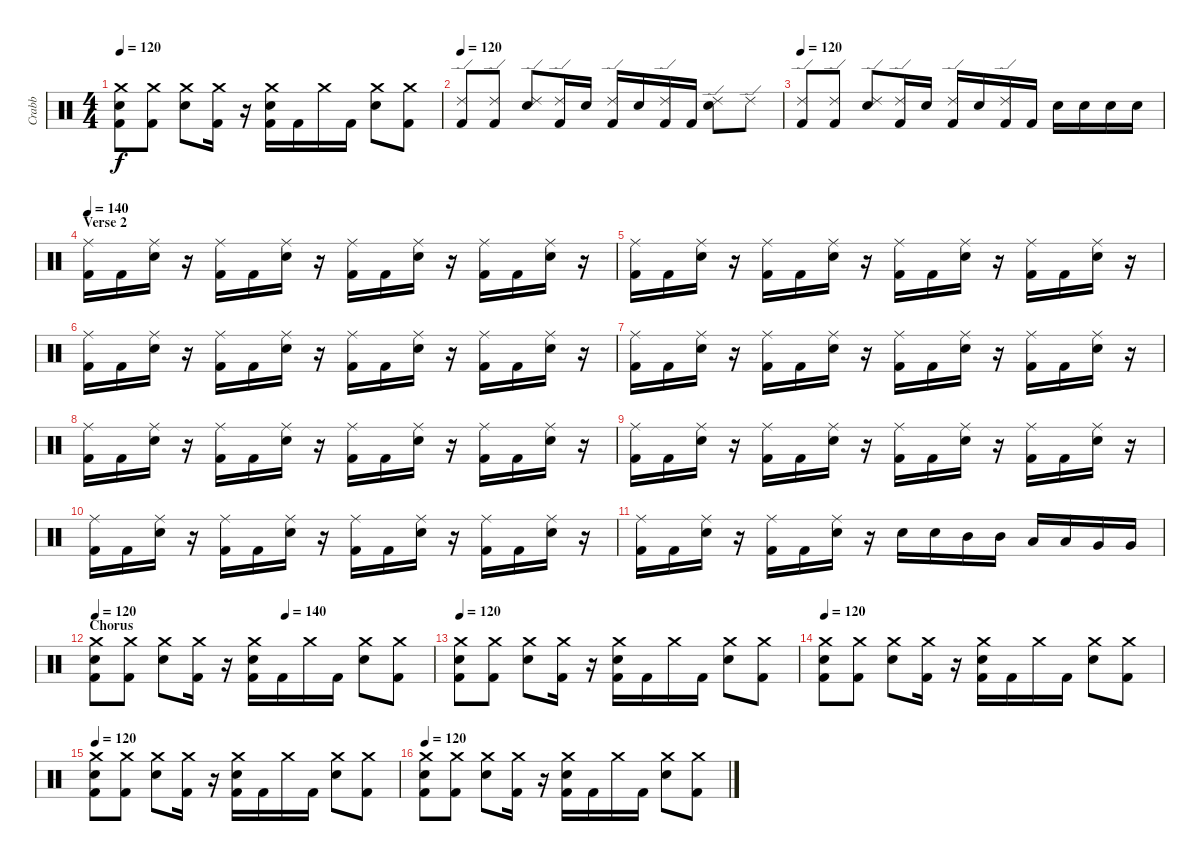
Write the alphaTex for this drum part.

\track ("Crabb" "Crabb") {instrument percussion}
\staff {score}
\articulation defaults
\ts (4 4)
\tempo 120
\clef neutral
\ks c
("Crash medium (hit)" "Kick (hit) 2" "Electric Snare (hit)").8{dy f} ("Crash medium (hit)" "Kick (hit) 2").8 ("Crash medium (hit)" "Electric Snare (hit)").8 ("Crash medium (hit)" "Kick (hit) 2").16 r.16 ("Crash medium (hit)" "Kick (hit) 2" "Electric Snare (hit)").16 "Kick (hit) 2".16 "Crash medium (hit)".16 "Kick (hit) 2".16 ("Crash medium (hit)" "Electric Snare (hit)").8 ("Crash medium (hit)" "Kick (hit) 2").8 |
\tempo 120
("Ride (edge) 2" "Kick (hit) 2").8 ("Ride (edge) 2" "Kick (hit) 2").8 ("Ride (edge) 2" "Electric Snare (hit)").8 ("Ride (edge) 2" "Kick (hit) 2").16 "Electric Snare (hit)".16 ("Ride (edge) 2" "Kick (hit) 2").16 "Electric Snare (hit)".16 ("Ride (edge) 2" "Kick (hit) 2").16 "Kick (hit) 2".16 ("Ride (edge) 2" "Electric Snare (hit)").8 "Ride (edge) 2".8 |
\tempo 120
("Ride (edge) 2" "Kick (hit) 2").8 ("Ride (edge) 2" "Kick (hit) 2").8 ("Ride (edge) 2" "Electric Snare (hit)").8 ("Ride (edge) 2" "Kick (hit) 2").16 "Electric Snare (hit)".16 ("Ride (edge) 2" "Kick (hit) 2").16 "Electric Snare (hit)".16 ("Ride (edge) 2" "Kick (hit) 2").16 "Kick (hit) 2".16 "Electric Snare (hit)".16 "Electric Snare (hit)".16 "Electric Snare (hit)".16 "Electric Snare (hit)".16 |
\section ("" "Verse 2")
\tempo 140
("Ride (middle)" "Kick (hit) 2").16 "Kick (hit) 2".16 ("Ride (middle)" "Electric Snare (hit)").16 r.16 ("Ride (middle)" "Kick (hit) 2").16 "Kick (hit) 2".16 ("Ride (middle)" "Electric Snare (hit)").16 r.16 ("Ride (middle)" "Kick (hit) 2").16 "Kick (hit) 2".16 ("Ride (middle)" "Electric Snare (hit)").16 r.16 ("Ride (middle)" "Kick (hit) 2").16 "Kick (hit) 2".16 ("Ride (middle)" "Electric Snare (hit)").16 r.16 |
("Ride (middle)" "Kick (hit) 2").16 "Kick (hit) 2".16 ("Ride (middle)" "Electric Snare (hit)").16 r.16 ("Ride (middle)" "Kick (hit) 2").16 "Kick (hit) 2".16 ("Ride (middle)" "Electric Snare (hit)").16 r.16 ("Ride (middle)" "Kick (hit) 2").16 "Kick (hit) 2".16 ("Ride (middle)" "Electric Snare (hit)").16 r.16 ("Ride (middle)" "Kick (hit) 2").16 "Kick (hit) 2".16 ("Ride (middle)" "Electric Snare (hit)").16 r.16 |
("Ride (middle)" "Kick (hit) 2").16 "Kick (hit) 2".16 ("Ride (middle)" "Electric Snare (hit)").16 r.16 ("Ride (middle)" "Kick (hit) 2").16 "Kick (hit) 2".16 ("Ride (middle)" "Electric Snare (hit)").16 r.16 ("Ride (middle)" "Kick (hit) 2").16 "Kick (hit) 2".16 ("Ride (middle)" "Electric Snare (hit)").16 r.16 ("Ride (middle)" "Kick (hit) 2").16 "Kick (hit) 2".16 ("Ride (middle)" "Electric Snare (hit)").16 r.16 |
("Ride (middle)" "Kick (hit) 2").16 "Kick (hit) 2".16 ("Ride (middle)" "Electric Snare (hit)").16 r.16 ("Ride (middle)" "Kick (hit) 2").16 "Kick (hit) 2".16 ("Ride (middle)" "Electric Snare (hit)").16 r.16 ("Ride (middle)" "Kick (hit) 2").16 "Kick (hit) 2".16 ("Ride (middle)" "Electric Snare (hit)").16 r.16 ("Ride (middle)" "Kick (hit) 2").16 "Kick (hit) 2".16 ("Ride (middle)" "Electric Snare (hit)").16 r.16 |
("Ride (middle)" "Kick (hit) 2").16 "Kick (hit) 2".16 ("Ride (middle)" "Electric Snare (hit)").16 r.16 ("Ride (middle)" "Kick (hit) 2").16 "Kick (hit) 2".16 ("Ride (middle)" "Electric Snare (hit)").16 r.16 ("Ride (middle)" "Kick (hit) 2").16 "Kick (hit) 2".16 ("Ride (middle)" "Electric Snare (hit)").16 r.16 ("Ride (middle)" "Kick (hit) 2").16 "Kick (hit) 2".16 ("Ride (middle)" "Electric Snare (hit)").16 r.16 |
("Ride (middle)" "Kick (hit) 2").16 "Kick (hit) 2".16 ("Ride (middle)" "Electric Snare (hit)").16 r.16 ("Ride (middle)" "Kick (hit) 2").16 "Kick (hit) 2".16 ("Ride (middle)" "Electric Snare (hit)").16 r.16 ("Ride (middle)" "Kick (hit) 2").16 "Kick (hit) 2".16 ("Ride (middle)" "Electric Snare (hit)").16 r.16 ("Ride (middle)" "Kick (hit) 2").16 "Kick (hit) 2".16 ("Ride (middle)" "Electric Snare (hit)").16 r.16 |
("Ride (middle)" "Kick (hit) 2").16 "Kick (hit) 2".16 ("Ride (middle)" "Electric Snare (hit)").16 r.16 ("Ride (middle)" "Kick (hit) 2").16 "Kick (hit) 2".16 ("Ride (middle)" "Electric Snare (hit)").16 r.16 ("Ride (middle)" "Kick (hit) 2").16 "Kick (hit) 2".16 ("Ride (middle)" "Electric Snare (hit)").16 r.16 ("Ride (middle)" "Kick (hit) 2").16 "Kick (hit) 2".16 ("Ride (middle)" "Electric Snare (hit)").16 r.16 |
("Ride (middle)" "Kick (hit) 2").16 "Kick (hit) 2".16 ("Ride (middle)" "Electric Snare (hit)").16 r.16 ("Ride (middle)" "Kick (hit) 2").16 "Kick (hit) 2".16 ("Ride (middle)" "Electric Snare (hit)").16 r.16 "Electric Snare (hit)".16 "Electric Snare (hit)".16 "Mid Tom (hit)".16 "Mid Tom (hit)".16 "Low Tom (hit)".16 "Low Tom (hit)".16 "Very Low Tom (hit)".16 "Very Low Tom (hit)".16 |
\section ("" "Chorus")
\tempo 120
\tempo (140 0.5625)
("Crash medium (hit)" "Kick (hit) 2" "Electric Snare (hit)").8 ("Crash medium (hit)" "Kick (hit) 2").8 ("Crash medium (hit)" "Electric Snare (hit)").8 ("Crash medium (hit)" "Kick (hit) 2").16 r.16 ("Crash medium (hit)" "Kick (hit) 2" "Electric Snare (hit)").16 "Kick (hit) 2".16 "Crash medium (hit)".16 "Kick (hit) 2".16 ("Crash medium (hit)" "Electric Snare (hit)").8 ("Crash medium (hit)" "Kick (hit) 2").8 |
\tempo 120
("Crash medium (hit)" "Kick (hit) 2" "Electric Snare (hit)").8 ("Crash medium (hit)" "Kick (hit) 2").8 ("Crash medium (hit)" "Electric Snare (hit)").8 ("Crash medium (hit)" "Kick (hit) 2").16 r.16 ("Crash medium (hit)" "Kick (hit) 2" "Electric Snare (hit)").16 "Kick (hit) 2".16 "Crash medium (hit)".16 "Kick (hit) 2".16 ("Crash medium (hit)" "Electric Snare (hit)").8 ("Crash medium (hit)" "Kick (hit) 2").8 |
\tempo 120
("Crash medium (hit)" "Kick (hit) 2" "Electric Snare (hit)").8 ("Crash medium (hit)" "Kick (hit) 2").8 ("Crash medium (hit)" "Electric Snare (hit)").8 ("Crash medium (hit)" "Kick (hit) 2").16 r.16 ("Crash medium (hit)" "Kick (hit) 2" "Electric Snare (hit)").16 "Kick (hit) 2".16 "Crash medium (hit)".16 "Kick (hit) 2".16 ("Crash medium (hit)" "Electric Snare (hit)").8 ("Crash medium (hit)" "Kick (hit) 2").8 |
\tempo 120
("Crash medium (hit)" "Kick (hit) 2" "Electric Snare (hit)").8 ("Crash medium (hit)" "Kick (hit) 2").8 ("Crash medium (hit)" "Electric Snare (hit)").8 ("Crash medium (hit)" "Kick (hit) 2").16 r.16 ("Crash medium (hit)" "Kick (hit) 2" "Electric Snare (hit)").16 "Kick (hit) 2".16 "Crash medium (hit)".16 "Kick (hit) 2".16 ("Crash medium (hit)" "Electric Snare (hit)").8 ("Crash medium (hit)" "Kick (hit) 2").8 |
\tempo 120
("Crash medium (hit)" "Kick (hit) 2" "Electric Snare (hit)").8 ("Crash medium (hit)" "Kick (hit) 2").8 ("Crash medium (hit)" "Electric Snare (hit)").8 ("Crash medium (hit)" "Kick (hit) 2").16 r.16 ("Crash medium (hit)" "Kick (hit) 2" "Electric Snare (hit)").16 "Kick (hit) 2".16 "Crash medium (hit)".16 "Kick (hit) 2".16 ("Crash medium (hit)" "Electric Snare (hit)").8 ("Crash medium (hit)" "Kick (hit) 2").8
